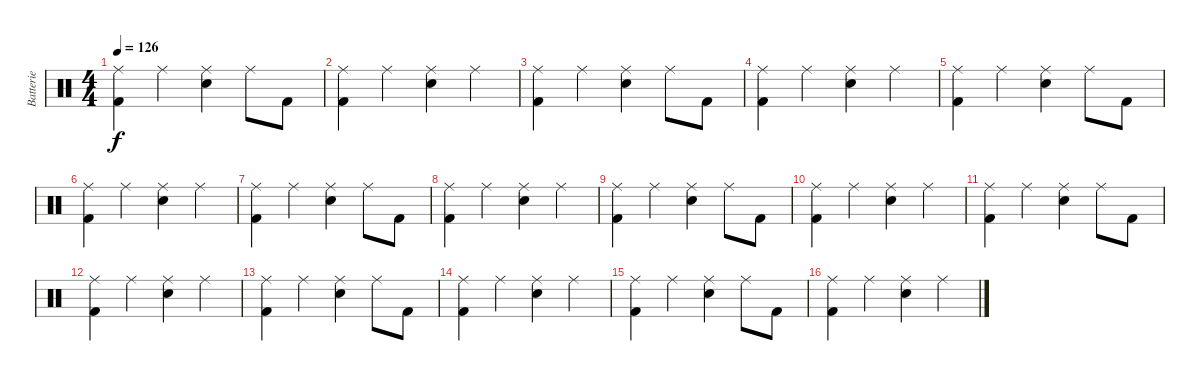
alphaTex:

\track ("Batterie" "Batterie") {instrument percussion}
\staff {score}
\articulation defaults
\ts (4 4)
\tempo 126
\clef neutral
\ks c
("Ride (middle)" "Kick (hit) 2").4{dy f} "Ride (middle)".4 ("Ride (middle)" "Snare (hit) 2").4 "Ride (middle)".8 "Kick (hit) 2".8 |
("Ride (middle)" "Kick (hit) 2").4 "Ride (middle)".4 ("Ride (middle)" "Snare (hit) 2").4 "Ride (middle)".4 |
("Ride (middle)" "Kick (hit) 2").4 "Ride (middle)".4 ("Ride (middle)" "Snare (hit) 2").4 "Ride (middle)".8 "Kick (hit) 2".8 |
("Ride (middle)" "Kick (hit) 2").4 "Ride (middle)".4 ("Ride (middle)" "Snare (hit) 2").4 "Ride (middle)".4 |
("Ride (middle)" "Kick (hit) 2").4 "Ride (middle)".4 ("Ride (middle)" "Snare (hit) 2").4 "Ride (middle)".8 "Kick (hit) 2".8 |
("Ride (middle)" "Kick (hit) 2").4 "Ride (middle)".4 ("Ride (middle)" "Snare (hit) 2").4 "Ride (middle)".4 |
("Ride (middle)" "Kick (hit) 2").4 "Ride (middle)".4 ("Ride (middle)" "Snare (hit) 2").4 "Ride (middle)".8 "Kick (hit) 2".8 |
("Ride (middle)" "Kick (hit) 2").4 "Ride (middle)".4 ("Ride (middle)" "Snare (hit) 2").4 "Ride (middle)".4 |
("Ride (middle)" "Kick (hit) 2").4 "Ride (middle)".4 ("Ride (middle)" "Snare (hit) 2").4 "Ride (middle)".8 "Kick (hit) 2".8 |
("Ride (middle)" "Kick (hit) 2").4 "Ride (middle)".4 ("Ride (middle)" "Snare (hit) 2").4 "Ride (middle)".4 |
("Ride (middle)" "Kick (hit) 2").4 "Ride (middle)".4 ("Ride (middle)" "Snare (hit) 2").4 "Ride (middle)".8 "Kick (hit) 2".8 |
("Ride (middle)" "Kick (hit) 2").4 "Ride (middle)".4 ("Ride (middle)" "Snare (hit) 2").4 "Ride (middle)".4 |
("Ride (middle)" "Kick (hit) 2").4 "Ride (middle)".4 ("Ride (middle)" "Snare (hit) 2").4 "Ride (middle)".8 "Kick (hit) 2".8 |
("Ride (middle)" "Kick (hit) 2").4 "Ride (middle)".4 ("Ride (middle)" "Snare (hit) 2").4 "Ride (middle)".4 |
("Ride (middle)" "Kick (hit) 2").4 "Ride (middle)".4 ("Ride (middle)" "Snare (hit) 2").4 "Ride (middle)".8 "Kick (hit) 2".8 |
("Ride (middle)" "Kick (hit) 2").4 "Ride (middle)".4 ("Ride (middle)" "Snare (hit) 2").4 "Ride (middle)".4
